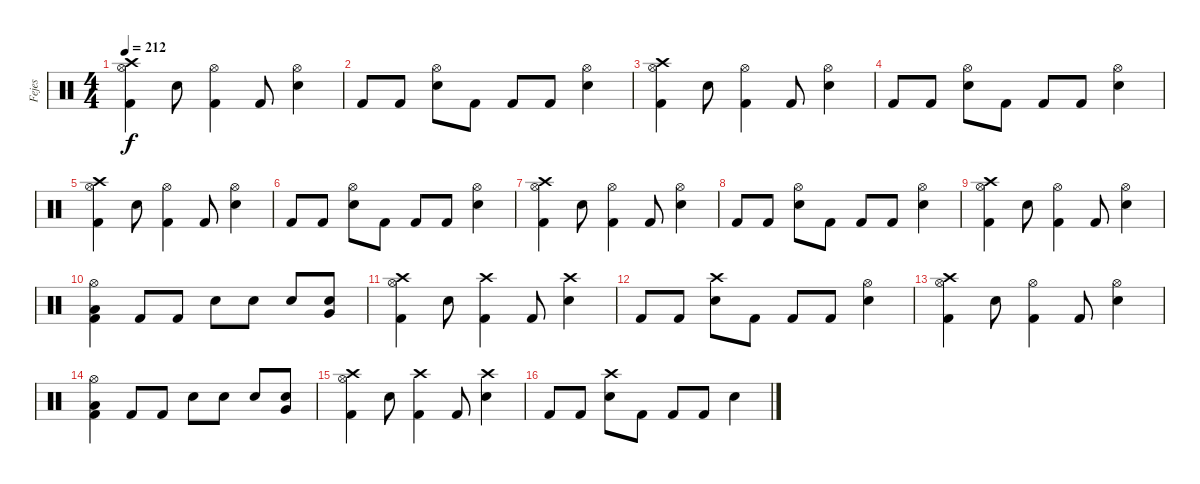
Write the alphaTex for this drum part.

\track ("Fejes" "Fejes") {instrument percussion}
\staff {score}
\articulation defaults
\ts (4 4)
\tempo 212
\clef neutral
\ks c
("Crash high (hit)" "Hi-Hat (open)" "Kick (hit) 2").4{dy f} "Snare (hit) 2".8 ("Hi-Hat (open)" "Kick (hit) 2").4 "Kick (hit) 2".8 ("Hi-Hat (open)" "Snare (hit) 2").4 |
"Kick (hit) 2".8 "Kick (hit) 2".8 ("Hi-Hat (open)" "Snare (hit) 2").8 "Kick (hit) 2".8 "Kick (hit) 2".8 "Kick (hit) 2".8 ("Hi-Hat (open)" "Snare (hit) 2").4 |
("Crash high (hit)" "Hi-Hat (open)" "Kick (hit) 2").4 "Snare (hit) 2".8 ("Hi-Hat (open)" "Kick (hit) 2").4 "Kick (hit) 2".8 ("Hi-Hat (open)" "Snare (hit) 2").4 |
"Kick (hit) 2".8 "Kick (hit) 2".8 ("Hi-Hat (open)" "Snare (hit) 2").8 "Kick (hit) 2".8 "Kick (hit) 2".8 "Kick (hit) 2".8 ("Hi-Hat (open)" "Snare (hit) 2").4 |
("Crash high (hit)" "Hi-Hat (open)" "Kick (hit) 2").4 "Snare (hit) 2".8 ("Hi-Hat (open)" "Kick (hit) 2").4 "Kick (hit) 2".8 ("Hi-Hat (open)" "Snare (hit) 2").4 |
"Kick (hit) 2".8 "Kick (hit) 2".8 ("Hi-Hat (open)" "Snare (hit) 2").8 "Kick (hit) 2".8 "Kick (hit) 2".8 "Kick (hit) 2".8 ("Hi-Hat (open)" "Snare (hit) 2").4 |
("Crash high (hit)" "Hi-Hat (open)" "Kick (hit) 2").4 "Snare (hit) 2".8 ("Hi-Hat (open)" "Kick (hit) 2").4 "Kick (hit) 2".8 ("Hi-Hat (open)" "Snare (hit) 2").4 |
"Kick (hit) 2".8 "Kick (hit) 2".8 ("Hi-Hat (open)" "Snare (hit) 2").8 "Kick (hit) 2".8 "Kick (hit) 2".8 "Kick (hit) 2".8 ("Hi-Hat (open)" "Snare (hit) 2").4 |
("Crash high (hit)" "Hi-Hat (open)" "Kick (hit) 2").4 "Snare (hit) 2".8 ("Hi-Hat (open)" "Kick (hit) 2").4 "Kick (hit) 2".8 ("Hi-Hat (open)" "Snare (hit) 2").4 |
("Hi-Hat (open)" "Low Tom (hit)" "Kick (hit) 2").4 "Kick (hit) 2".8 "Kick (hit) 2".8 "Snare (hit) 2".8 "Snare (hit) 2".8 "Snare (hit) 2".8 ("Very Low Tom (hit)" "Snare (hit) 2").8 |
("Crash high (hit)" "Hi-Hat (open)" "Kick (hit) 2").4 "Snare (hit) 2".8 ("Crash high (hit)" "Kick (hit) 2").4 "Kick (hit) 2".8 ("Crash high (hit)" "Snare (hit) 2").4 |
"Kick (hit) 2".8 "Kick (hit) 2".8 ("Crash high (hit)" "Snare (hit) 2").8 "Kick (hit) 2".8 "Kick (hit) 2".8 "Kick (hit) 2".8 ("Hi-Hat (open)" "Snare (hit) 2").4 |
("Crash high (hit)" "Hi-Hat (open)" "Kick (hit) 2").4 "Snare (hit) 2".8 ("Hi-Hat (open)" "Kick (hit) 2").4 "Kick (hit) 2".8 ("Hi-Hat (open)" "Snare (hit) 2").4 |
("Hi-Hat (open)" "Low Tom (hit)" "Kick (hit) 2").4 "Kick (hit) 2".8 "Kick (hit) 2".8 "Snare (hit) 2".8 "Snare (hit) 2".8 "Snare (hit) 2".8 ("Very Low Tom (hit)" "Snare (hit) 2").8 |
("Crash high (hit)" "Hi-Hat (open)" "Kick (hit) 2").4 "Snare (hit) 2".8 ("Crash high (hit)" "Kick (hit) 2").4 "Kick (hit) 2".8 ("Crash high (hit)" "Snare (hit) 2").4 |
"Kick (hit) 2".8 "Kick (hit) 2".8 ("Crash high (hit)" "Snare (hit) 2").8 "Kick (hit) 2".8 "Kick (hit) 2".8 "Kick (hit) 2".8 "Snare (hit) 2".4
